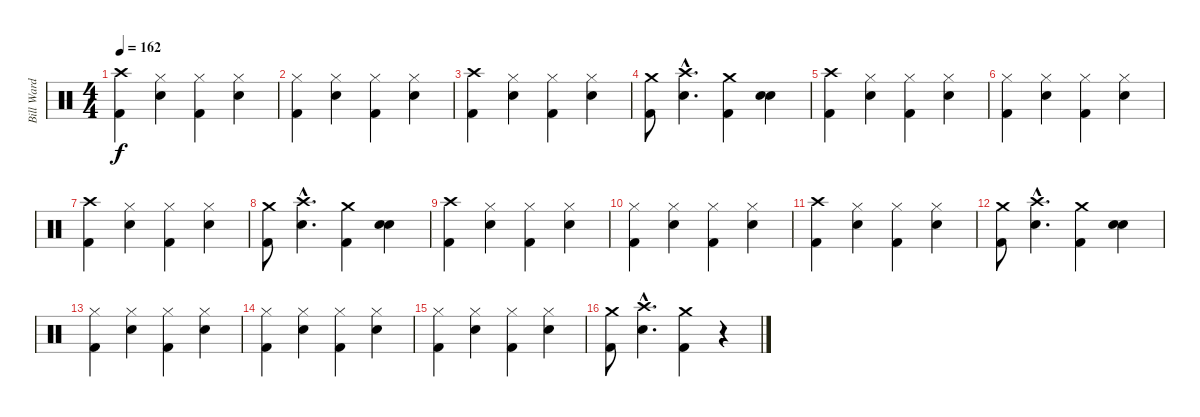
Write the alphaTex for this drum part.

\track ("Bill Ward" "Bill Ward") {instrument percussion}
\staff {score}
\articulation defaults
\ts (4 4)
\tempo 162
\clef neutral
\ks c
("Crash high (hit)" "Kick (hit) 2").4{dy f} ("Hi-Hat (closed)" "Snare (hit) 2").4 ("Hi-Hat (closed)" "Kick (hit) 2").4 ("Hi-Hat (closed)" "Snare (hit) 2").4 |
("Hi-Hat (closed)" "Kick (hit) 2").4 ("Hi-Hat (closed)" "Snare (hit) 2").4 ("Hi-Hat (closed)" "Kick (hit) 2").4 ("Hi-Hat (closed)" "Snare (hit) 2").4 |
("Crash high (hit)" "Kick (hit) 2").4 ("Hi-Hat (closed)" "Snare (hit) 2").4 ("Hi-Hat (closed)" "Kick (hit) 2").4 ("Hi-Hat (closed)" "Snare (hit) 2").4 |
("Kick (hit) 2" "Crash medium (hit)").8 ("Snare (hit) 2"{hac} "Crash high (hit)"{hac}).4{d} ("Kick (hit) 2" "Crash medium (hit)").4 ("Snare (hit) 2" "Snare (hit) 2").4{bd 480} |
("Crash high (hit)" "Kick (hit) 2").4 ("Hi-Hat (closed)" "Snare (hit) 2").4 ("Hi-Hat (closed)" "Kick (hit) 2").4 ("Hi-Hat (closed)" "Snare (hit) 2").4 |
("Hi-Hat (closed)" "Kick (hit) 2").4 ("Hi-Hat (closed)" "Snare (hit) 2").4 ("Hi-Hat (closed)" "Kick (hit) 2").4 ("Hi-Hat (closed)" "Snare (hit) 2").4 |
("Crash high (hit)" "Kick (hit) 2").4 ("Hi-Hat (closed)" "Snare (hit) 2").4 ("Hi-Hat (closed)" "Kick (hit) 2").4 ("Hi-Hat (closed)" "Snare (hit) 2").4 |
("Kick (hit) 2" "Crash medium (hit)").8 ("Snare (hit) 2"{hac} "Crash high (hit)"{hac}).4{d} ("Kick (hit) 2" "Crash medium (hit)").4 ("Snare (hit) 2" "Snare (hit) 2").4{bd 480} |
("Crash high (hit)" "Kick (hit) 2").4 ("Hi-Hat (closed)" "Snare (hit) 2").4 ("Hi-Hat (closed)" "Kick (hit) 2").4 ("Hi-Hat (closed)" "Snare (hit) 2").4 |
("Hi-Hat (closed)" "Kick (hit) 2").4 ("Hi-Hat (closed)" "Snare (hit) 2").4 ("Hi-Hat (closed)" "Kick (hit) 2").4 ("Hi-Hat (closed)" "Snare (hit) 2").4 |
("Crash high (hit)" "Kick (hit) 2").4 ("Hi-Hat (closed)" "Snare (hit) 2").4 ("Hi-Hat (closed)" "Kick (hit) 2").4 ("Hi-Hat (closed)" "Snare (hit) 2").4 |
("Kick (hit) 2" "Crash medium (hit)").8 ("Snare (hit) 2"{hac} "Crash high (hit)"{hac}).4{d} ("Kick (hit) 2" "Crash medium (hit)").4 ("Snare (hit) 2" "Snare (hit) 2").4{bd 480} |
("Hi-Hat (closed)" "Kick (hit) 2").4 ("Hi-Hat (closed)" "Snare (hit) 2").4 ("Hi-Hat (closed)" "Kick (hit) 2").4 ("Hi-Hat (closed)" "Snare (hit) 2").4 |
("Hi-Hat (closed)" "Kick (hit) 2").4 ("Hi-Hat (closed)" "Snare (hit) 2").4 ("Hi-Hat (closed)" "Kick (hit) 2").4 ("Hi-Hat (closed)" "Snare (hit) 2").4 |
("Hi-Hat (closed)" "Kick (hit) 2").4 ("Hi-Hat (closed)" "Snare (hit) 2").4 ("Hi-Hat (closed)" "Kick (hit) 2").4 ("Hi-Hat (closed)" "Snare (hit) 2").4 |
("Crash medium (hit)" "Kick (hit) 2").8 ("Crash high (hit)"{hac} "Snare (hit) 2"{hac}).4{d} ("Crash medium (hit)" "Kick (hit) 2").4 r.4
